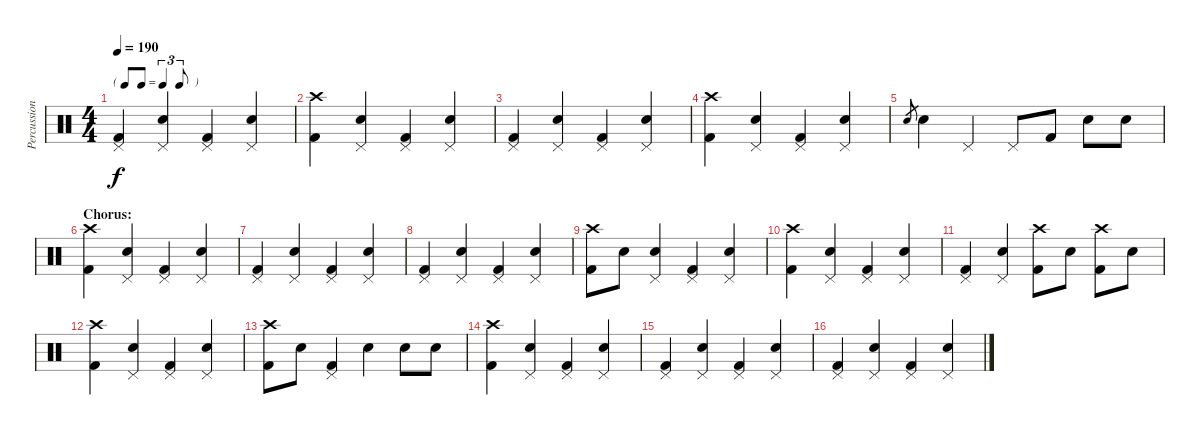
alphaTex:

\track ("Percussion" "Percussion") {instrument percussion}
\staff {score}
\articulation defaults
\ts (4 4)
\tf triplet8th
\tempo 190
\clef neutral
\ks c
("Pedal Hi-Hat (hit)" "Kick (hit) 2").4{dy f} ("Pedal Hi-Hat (hit)" "Electric Snare (hit)").4 ("Pedal Hi-Hat (hit)" "Kick (hit) 2").4 ("Pedal Hi-Hat (hit)" "Electric Snare (hit)").4 |
("Crash high (hit)" "Kick (hit) 2").4 ("Pedal Hi-Hat (hit)" "Electric Snare (hit)").4 ("Pedal Hi-Hat (hit)" "Kick (hit) 2").4 ("Pedal Hi-Hat (hit)" "Electric Snare (hit)").4 |
("Pedal Hi-Hat (hit)" "Kick (hit) 2").4 ("Pedal Hi-Hat (hit)" "Electric Snare (hit)").4 ("Pedal Hi-Hat (hit)" "Kick (hit) 2").4 ("Pedal Hi-Hat (hit)" "Electric Snare (hit)").4 |
("Crash high (hit)" "Kick (hit) 2").4 ("Pedal Hi-Hat (hit)" "Electric Snare (hit)").4 ("Pedal Hi-Hat (hit)" "Kick (hit) 2").4 ("Pedal Hi-Hat (hit)" "Electric Snare (hit)").4 |
"Electric Snare (hit)".8{gr} "Electric Snare (hit)".4 "Pedal Hi-Hat (hit)".4 "Pedal Hi-Hat (hit)".8 "Kick (hit) 2".8 "Electric Snare (hit)".8 "Electric Snare (hit)".8 |
\section ("" "Chorus:")
("Crash high (hit)" "Kick (hit) 2").4 ("Pedal Hi-Hat (hit)" "Electric Snare (hit)").4 ("Pedal Hi-Hat (hit)" "Kick (hit) 2").4 ("Pedal Hi-Hat (hit)" "Electric Snare (hit)").4 |
("Pedal Hi-Hat (hit)" "Kick (hit) 2").4 ("Pedal Hi-Hat (hit)" "Electric Snare (hit)").4 ("Pedal Hi-Hat (hit)" "Kick (hit) 2").4 ("Pedal Hi-Hat (hit)" "Electric Snare (hit)").4 |
("Pedal Hi-Hat (hit)" "Kick (hit) 2").4 ("Pedal Hi-Hat (hit)" "Electric Snare (hit)").4 ("Pedal Hi-Hat (hit)" "Kick (hit) 2").4 ("Pedal Hi-Hat (hit)" "Electric Snare (hit)").4 |
("Crash high (hit)" "Kick (hit) 2").8 "Electric Snare (hit)".8 ("Pedal Hi-Hat (hit)" "Electric Snare (hit)").4 ("Pedal Hi-Hat (hit)" "Kick (hit) 2").4 ("Pedal Hi-Hat (hit)" "Electric Snare (hit)").4 |
("Crash high (hit)" "Kick (hit) 2").4 ("Pedal Hi-Hat (hit)" "Electric Snare (hit)").4 ("Pedal Hi-Hat (hit)" "Kick (hit) 2").4 ("Pedal Hi-Hat (hit)" "Electric Snare (hit)").4 |
("Pedal Hi-Hat (hit)" "Kick (hit) 2").4 ("Pedal Hi-Hat (hit)" "Electric Snare (hit)").4 ("Crash high (hit)" "Kick (hit) 2").8 "Electric Snare (hit)".8 ("Crash high (hit)" "Kick (hit) 2").8 "Electric Snare (hit)".8 |
("Crash high (hit)" "Kick (hit) 2").4 ("Pedal Hi-Hat (hit)" "Electric Snare (hit)").4 ("Pedal Hi-Hat (hit)" "Kick (hit) 2").4 ("Pedal Hi-Hat (hit)" "Electric Snare (hit)").4 |
("Crash high (hit)" "Kick (hit) 2").8 "Electric Snare (hit)".8 ("Pedal Hi-Hat (hit)" "Kick (hit) 2").4 "Electric Snare (hit)".4 "Electric Snare (hit)".8 "Electric Snare (hit)".8 |
("Crash high (hit)" "Kick (hit) 2").4 ("Pedal Hi-Hat (hit)" "Electric Snare (hit)").4 ("Pedal Hi-Hat (hit)" "Kick (hit) 2").4 ("Pedal Hi-Hat (hit)" "Electric Snare (hit)").4 |
("Pedal Hi-Hat (hit)" "Kick (hit) 2").4 ("Pedal Hi-Hat (hit)" "Electric Snare (hit)").4 ("Pedal Hi-Hat (hit)" "Kick (hit) 2").4 ("Pedal Hi-Hat (hit)" "Electric Snare (hit)").4 |
("Pedal Hi-Hat (hit)" "Kick (hit) 2").4 ("Pedal Hi-Hat (hit)" "Electric Snare (hit)").4 ("Pedal Hi-Hat (hit)" "Kick (hit) 2").4 ("Pedal Hi-Hat (hit)" "Electric Snare (hit)").4
